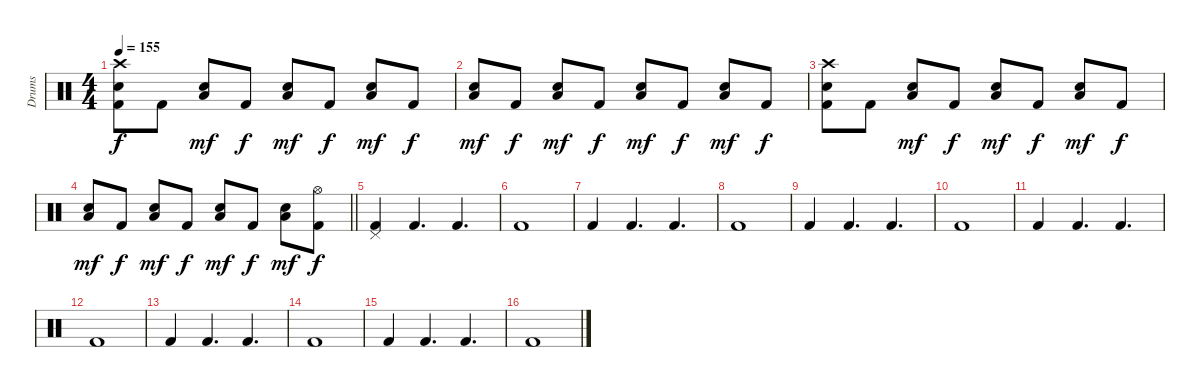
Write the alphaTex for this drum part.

\track ("Drums" "Drums") {instrument percussion}
\staff {score}
\articulation defaults
\ts (4 4)
\tempo 155
\clef neutral
\ks c
("Crash high (hit)" "Snare (hit) 2" "Kick (hit) 2").8{dy f} "Kick (hit) 2".8 ("Snare (hit) 2" "Low Floor Tom (hit)").8{dy mf} "Kick (hit) 2".8{dy f} ("Snare (hit) 2" "Low Floor Tom (hit)").8{dy mf} "Kick (hit) 2".8{dy f} ("Snare (hit) 2" "Low Floor Tom (hit)").8{dy mf} "Kick (hit) 2".8{dy f} |
("Snare (hit) 2" "Low Floor Tom (hit)").8{dy mf} "Kick (hit) 2".8{dy f} ("Snare (hit) 2" "Low Floor Tom (hit)").8{dy mf} "Kick (hit) 2".8{dy f} ("Snare (hit) 2" "Low Floor Tom (hit)").8{dy mf} "Kick (hit) 2".8{dy f} ("Snare (hit) 2" "Low Floor Tom (hit)").8{dy mf} "Kick (hit) 2".8{dy f} |
("Crash high (hit)" "Snare (hit) 2" "Kick (hit) 2").8 "Kick (hit) 2".8 ("Snare (hit) 2" "Low Floor Tom (hit)").8{dy mf} "Kick (hit) 2".8{dy f} ("Snare (hit) 2" "Low Floor Tom (hit)").8{dy mf} "Kick (hit) 2".8{dy f} ("Snare (hit) 2" "Low Floor Tom (hit)").8{dy mf} "Kick (hit) 2".8{dy f} |
\barLineRight lightlight
("Snare (hit) 2" "Low Floor Tom (hit)").8{dy mf} "Kick (hit) 2".8{dy f} ("Snare (hit) 2" "Low Floor Tom (hit)").8{dy mf} "Kick (hit) 2".8{dy f} ("Snare (hit) 2" "Low Floor Tom (hit)").8{dy mf} "Kick (hit) 2".8{dy f} ("Snare (hit) 2" "Low Floor Tom (hit)").8{dy mf} ("Hi-Hat (open)" "Kick (hit) 2").8{dy f} |
\section ("" "")
("Pedal Hi-Hat (hit)" "Kick (hit) 2").4 "Kick (hit) 2".4{d} "Kick (hit) 2".4{d} |
"Kick (hit) 2".1 |
"Kick (hit) 2".4 "Kick (hit) 2".4{d} "Kick (hit) 2".4{d} |
"Kick (hit) 2".1 |
"Kick (hit) 2".4 "Kick (hit) 2".4{d} "Kick (hit) 2".4{d} |
"Kick (hit) 2".1 |
"Kick (hit) 2".4 "Kick (hit) 2".4{d} "Kick (hit) 2".4{d} |
"Kick (hit) 2".1 |
"Kick (hit) 2".4 "Kick (hit) 2".4{d} "Kick (hit) 2".4{d} |
"Kick (hit) 2".1 |
"Kick (hit) 2".4 "Kick (hit) 2".4{d} "Kick (hit) 2".4{d} |
"Kick (hit) 2".1
